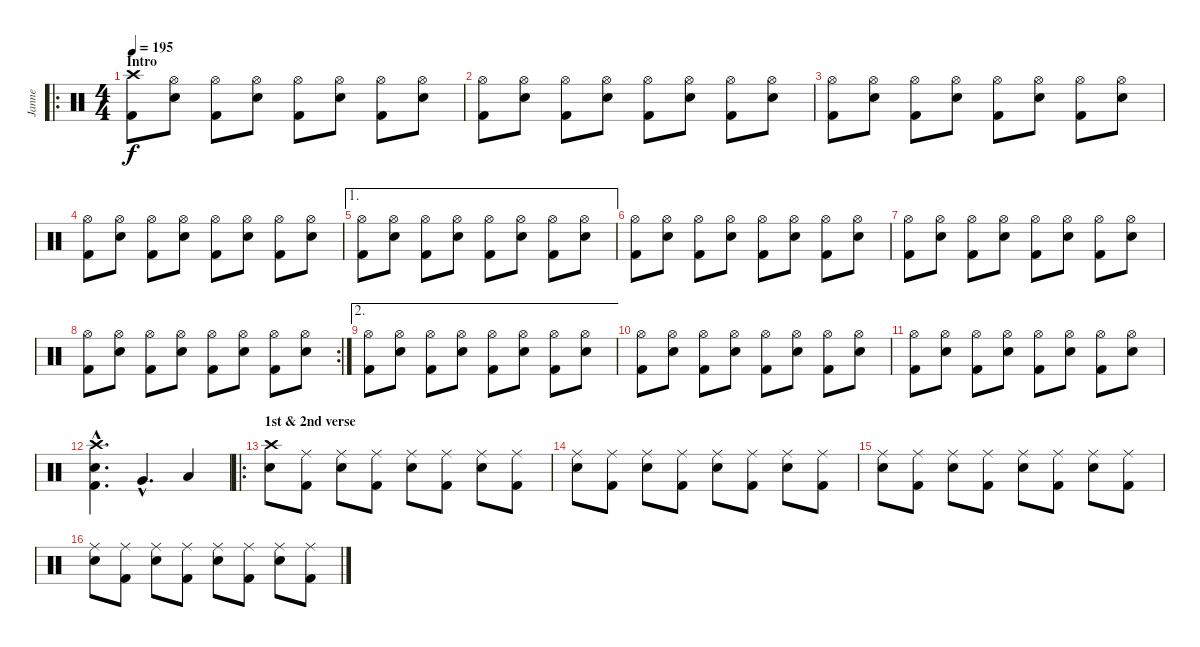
\track ("Janne" "Janne") {instrument percussion}
\staff {score}
\articulation defaults
\ro
\ts (4 4)
\section ("" "Intro")
\tempo 195
\clef neutral
\ks c
("Crash high (hit)" "Kick (hit) 2").8{dy f} ("Hi-Hat (open)" "Electric Snare (hit)").8 ("Hi-Hat (open)" "Kick (hit) 2").8 ("Hi-Hat (open)" "Electric Snare (hit)").8 ("Hi-Hat (open)" "Kick (hit) 2").8 ("Hi-Hat (open)" "Electric Snare (hit)").8 ("Hi-Hat (open)" "Kick (hit) 2").8 ("Hi-Hat (open)" "Electric Snare (hit)").8 |
("Hi-Hat (open)" "Kick (hit) 2").8 ("Hi-Hat (open)" "Electric Snare (hit)").8 ("Hi-Hat (open)" "Kick (hit) 2").8 ("Hi-Hat (open)" "Electric Snare (hit)").8 ("Hi-Hat (open)" "Kick (hit) 2").8 ("Hi-Hat (open)" "Electric Snare (hit)").8 ("Hi-Hat (open)" "Kick (hit) 2").8 ("Hi-Hat (open)" "Electric Snare (hit)").8 |
("Hi-Hat (open)" "Kick (hit) 2").8 ("Hi-Hat (open)" "Electric Snare (hit)").8 ("Hi-Hat (open)" "Kick (hit) 2").8 ("Hi-Hat (open)" "Electric Snare (hit)").8 ("Hi-Hat (open)" "Kick (hit) 2").8 ("Hi-Hat (open)" "Electric Snare (hit)").8 ("Hi-Hat (open)" "Kick (hit) 2").8 ("Hi-Hat (open)" "Electric Snare (hit)").8 |
("Hi-Hat (open)" "Kick (hit) 2").8 ("Hi-Hat (open)" "Electric Snare (hit)").8 ("Hi-Hat (open)" "Kick (hit) 2").8 ("Hi-Hat (open)" "Electric Snare (hit)").8 ("Hi-Hat (open)" "Kick (hit) 2").8 ("Hi-Hat (open)" "Electric Snare (hit)").8 ("Hi-Hat (open)" "Kick (hit) 2").8 ("Hi-Hat (open)" "Electric Snare (hit)").8 |
\ae 1
("Hi-Hat (open)" "Kick (hit) 2").8 ("Hi-Hat (open)" "Electric Snare (hit)").8 ("Hi-Hat (open)" "Kick (hit) 2").8 ("Hi-Hat (open)" "Electric Snare (hit)").8 ("Hi-Hat (open)" "Kick (hit) 2").8 ("Hi-Hat (open)" "Electric Snare (hit)").8 ("Hi-Hat (open)" "Kick (hit) 2").8 ("Hi-Hat (open)" "Electric Snare (hit)").8 |
("Hi-Hat (open)" "Kick (hit) 2").8 ("Hi-Hat (open)" "Electric Snare (hit)").8 ("Hi-Hat (open)" "Kick (hit) 2").8 ("Hi-Hat (open)" "Electric Snare (hit)").8 ("Hi-Hat (open)" "Kick (hit) 2").8 ("Hi-Hat (open)" "Electric Snare (hit)").8 ("Hi-Hat (open)" "Kick (hit) 2").8 ("Hi-Hat (open)" "Electric Snare (hit)").8 |
("Hi-Hat (open)" "Kick (hit) 2").8 ("Hi-Hat (open)" "Electric Snare (hit)").8 ("Hi-Hat (open)" "Kick (hit) 2").8 ("Hi-Hat (open)" "Electric Snare (hit)").8 ("Hi-Hat (open)" "Kick (hit) 2").8 ("Hi-Hat (open)" "Electric Snare (hit)").8 ("Hi-Hat (open)" "Kick (hit) 2").8 ("Hi-Hat (open)" "Electric Snare (hit)").8 |
\rc 2
("Hi-Hat (open)" "Kick (hit) 2").8 ("Hi-Hat (open)" "Electric Snare (hit)").8 ("Hi-Hat (open)" "Kick (hit) 2").8 ("Hi-Hat (open)" "Electric Snare (hit)").8 ("Hi-Hat (open)" "Kick (hit) 2").8 ("Hi-Hat (open)" "Electric Snare (hit)").8 ("Hi-Hat (open)" "Kick (hit) 2").8 ("Hi-Hat (open)" "Electric Snare (hit)").8 |
\ae 2
("Hi-Hat (open)" "Kick (hit) 2").8 ("Hi-Hat (open)" "Electric Snare (hit)").8 ("Hi-Hat (open)" "Kick (hit) 2").8 ("Hi-Hat (open)" "Electric Snare (hit)").8 ("Hi-Hat (open)" "Kick (hit) 2").8 ("Hi-Hat (open)" "Electric Snare (hit)").8 ("Hi-Hat (open)" "Kick (hit) 2").8 ("Hi-Hat (open)" "Electric Snare (hit)").8 |
("Hi-Hat (open)" "Kick (hit) 2").8 ("Hi-Hat (open)" "Electric Snare (hit)").8 ("Hi-Hat (open)" "Kick (hit) 2").8 ("Hi-Hat (open)" "Electric Snare (hit)").8 ("Hi-Hat (open)" "Kick (hit) 2").8 ("Hi-Hat (open)" "Electric Snare (hit)").8 ("Hi-Hat (open)" "Kick (hit) 2").8 ("Hi-Hat (open)" "Electric Snare (hit)").8 |
("Hi-Hat (open)" "Kick (hit) 2").8 ("Hi-Hat (open)" "Electric Snare (hit)").8 ("Hi-Hat (open)" "Kick (hit) 2").8 ("Hi-Hat (open)" "Electric Snare (hit)").8 ("Hi-Hat (open)" "Kick (hit) 2").8 ("Hi-Hat (open)" "Electric Snare (hit)").8 ("Hi-Hat (open)" "Kick (hit) 2").8 ("Hi-Hat (open)" "Electric Snare (hit)").8 |
("Crash high (hit)"{hac} "Electric Snare (hit)"{hac} "Kick (hit) 2"{hac}).4{d} "Very Low Tom (hit)"{hac}.4{d} "Low Floor Tom (hit)".4 |
\ro
\section ("" "1st & 2nd verse")
("Crash high (hit)" "Electric Snare (hit)").8 ("Ride (middle)" "Kick (hit) 2").8 ("Ride (middle)" "Electric Snare (hit)").8 ("Ride (middle)" "Kick (hit) 2").8 ("Ride (middle)" "Electric Snare (hit)").8 ("Ride (middle)" "Kick (hit) 2").8 ("Ride (middle)" "Electric Snare (hit)").8 ("Ride (middle)" "Kick (hit) 2").8 |
("Ride (middle)" "Electric Snare (hit)").8 ("Ride (middle)" "Kick (hit) 2").8 ("Ride (middle)" "Electric Snare (hit)").8 ("Ride (middle)" "Kick (hit) 2").8 ("Ride (middle)" "Electric Snare (hit)").8 ("Ride (middle)" "Kick (hit) 2").8 ("Ride (middle)" "Electric Snare (hit)").8 ("Ride (middle)" "Kick (hit) 2").8 |
("Ride (middle)" "Electric Snare (hit)").8 ("Ride (middle)" "Kick (hit) 2").8 ("Ride (middle)" "Electric Snare (hit)").8 ("Ride (middle)" "Kick (hit) 2").8 ("Ride (middle)" "Electric Snare (hit)").8 ("Ride (middle)" "Kick (hit) 2").8 ("Ride (middle)" "Electric Snare (hit)").8 ("Ride (middle)" "Kick (hit) 2").8 |
("Ride (middle)" "Electric Snare (hit)").8 ("Ride (middle)" "Kick (hit) 2").8 ("Ride (middle)" "Electric Snare (hit)").8 ("Ride (middle)" "Kick (hit) 2").8 ("Ride (middle)" "Electric Snare (hit)").8 ("Ride (middle)" "Kick (hit) 2").8 ("Ride (middle)" "Electric Snare (hit)").8 ("Ride (middle)" "Kick (hit) 2").8
